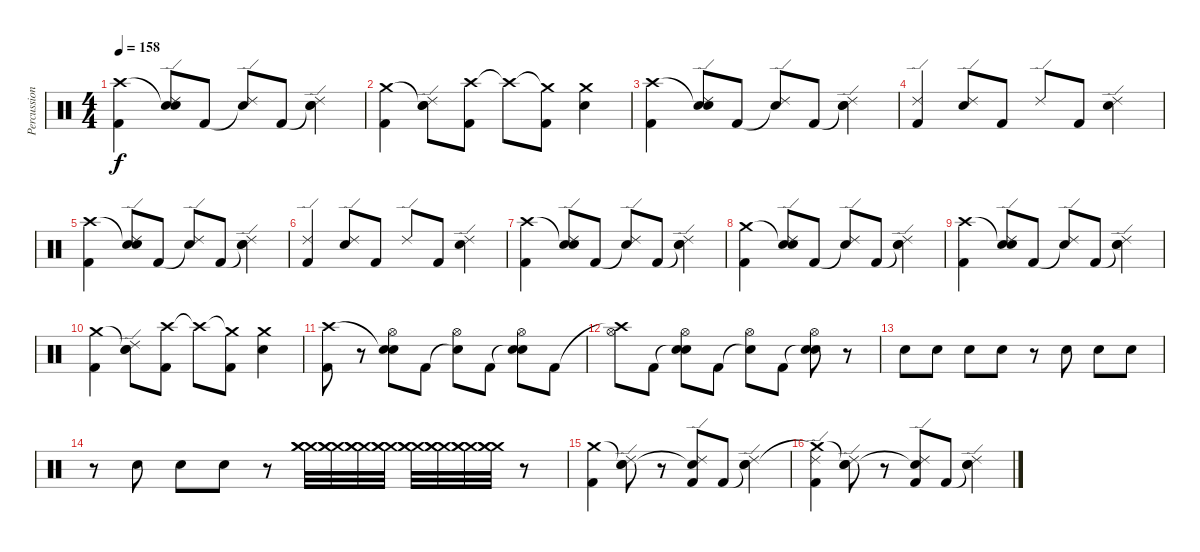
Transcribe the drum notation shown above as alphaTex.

\track ("Percussion" "Percussion") {instrument percussion}
\staff {score}
\articulation defaults
\ts (4 4)
\tempo 158
\clef neutral
\ks c
("Crash high (hit)" "Kick (hit) 2").4{dy f} ("Snare (hit)"{t} "Ride (edge) 2" "Snare (hit) 2").8 "Kick (hit) 2".8 ("Snare (hit)"{t} "Ride (edge) 2").8 "Kick (hit) 2".8 ("Snare (hit)"{t} "Ride (edge) 2" "Snare (hit) 2").4 |
("Crash medium (hit)" "Kick (hit) 2").4 ("Snare (hit)"{t} "Ride (edge) 2" "Snare (hit) 2").8 ("Crash high (hit)" "Kick (hit) 2").8 "Crash high (hit)"{t}.8 ("Crash medium (hit)"{t} "Kick (hit) 2").8 ("Crash medium (hit)" "Snare (hit) 2").4 |
("Crash high (hit)" "Kick (hit) 2").4 ("Snare (hit)"{t} "Ride (edge) 2" "Snare (hit) 2").8 "Kick (hit) 2".8 ("Snare (hit)"{t} "Ride (edge) 2").8 "Kick (hit) 2".8 ("Snare (hit)"{t} "Ride (edge) 2" "Snare (hit) 2").4 |
("Ride (edge) 2" "Kick (hit) 2").4 ("Ride (edge) 2" "Snare (hit) 2").8 "Kick (hit) 2".8 "Ride (edge) 2".8 "Kick (hit) 2".8 ("Ride (edge) 2" "Snare (hit) 2").4 |
("Crash high (hit)" "Kick (hit) 2").4 ("Snare (hit)"{t} "Ride (edge) 2" "Snare (hit) 2").8 "Kick (hit) 2".8 ("Snare (hit)"{t} "Ride (edge) 2").8 "Kick (hit) 2".8 ("Snare (hit)"{t} "Ride (edge) 2" "Snare (hit) 2").4 |
("Ride (edge) 2" "Kick (hit) 2").4 ("Ride (edge) 2" "Snare (hit) 2").8 "Kick (hit) 2".8 "Ride (edge) 2".8 "Kick (hit) 2".8 ("Ride (edge) 2" "Snare (hit) 2").4 |
("Crash high (hit)" "Kick (hit) 2").4 ("Snare (hit)"{t} "Ride (edge) 2" "Snare (hit) 2").8 "Kick (hit) 2".8 ("Snare (hit)"{t} "Ride (edge) 2").8 "Kick (hit) 2".8 ("Snare (hit)"{t} "Ride (edge) 2" "Snare (hit) 2").4 |
("Crash medium (hit)" "Kick (hit) 2").4 ("Snare (hit)"{t} "Ride (edge) 2" "Snare (hit) 2").8 "Kick (hit) 2".8 ("Snare (hit)"{t} "Ride (edge) 2").8 "Kick (hit) 2".8 ("Snare (hit)"{t} "Ride (edge) 2" "Snare (hit) 2").4 |
("Crash high (hit)" "Kick (hit) 2").4 ("Snare (hit)"{t} "Ride (edge) 2" "Snare (hit) 2").8 "Kick (hit) 2".8 ("Snare (hit)"{t} "Ride (edge) 2").8 "Kick (hit) 2".8 ("Snare (hit)"{t} "Ride (edge) 2" "Snare (hit) 2").4 |
("Crash medium (hit)" "Kick (hit) 2").4 ("Snare (hit)"{t} "Ride (edge) 2" "Snare (hit) 2").8 ("Crash high (hit)" "Kick (hit) 2").8 "Crash high (hit)"{t}.8 ("Crash medium (hit)"{t} "Kick (hit) 2").8 ("Crash medium (hit)" "Snare (hit) 2").4 |
("Crash high (hit)" "Kick (hit) 2").8 r.8 ("Snare (hit)"{t} "Hi-Hat (open)" "Snare (hit) 2").8 "Kick (hit) 2".8 ("Snare (hit)"{t} "Hi-Hat (open)").8 "Kick (hit) 2".8 ("Snare (hit)"{t} "Hi-Hat (open)" "Snare (hit) 2").8 "Kick (hit) 2".8 |
("Crash high (hit)"{t} "Hi-Hat (open)").8 "Kick (hit) 2".8 ("Snare (hit)"{t} "Hi-Hat (open)" "Snare (hit) 2").8 "Kick (hit) 2".8 ("Snare (hit)"{t} "Hi-Hat (open)").8 "Kick (hit) 2".8 ("Snare (hit)"{t} "Hi-Hat (open)" "Snare (hit) 2").8 r.8 |
"Snare (hit) 2".8 "Snare (hit) 2".8 "Snare (hit) 2".8 "Snare (hit) 2".8 r.8 "Snare (hit) 2".8 "Snare (hit) 2".8 "Snare (hit) 2".8 |
r.8 "Snare (hit) 2".8 "Snare (hit) 2".8 "Snare (hit) 2".8 r.8 ("Crash medium (hit)" "Crash medium (hit)" "Crash medium (hit)").32 ("Crash medium (hit)" "Crash medium (hit)" "Crash medium (hit)").32 ("Crash medium (hit)" "Crash medium (hit)" "Crash medium (hit)").32 ("Crash medium (hit)" "Crash medium (hit)" "Crash medium (hit)").32 ("Crash medium (hit)" "Crash medium (hit)" "Crash medium (hit)").32 ("Crash medium (hit)" "Crash medium (hit)" "Crash medium (hit)").32 ("Crash medium (hit)" "Crash medium (hit)" "Crash medium (hit)").32 ("Crash medium (hit)" "Crash medium (hit)" "Crash medium (hit)").32 r.8 |
("Crash medium (hit)" "Kick (hit) 2").4 ("Snare (hit)"{t} "Ride (edge) 2" "Snare (hit) 2").8 r.8 ("Snare (hit)"{t} "Ride (edge) 2" "Kick (hit) 2").8 "Kick (hit) 2".8 ("Snare (hit)"{t} "Ride (edge) 2" "Snare (hit) 2").4 |
("Crash medium (hit)"{t} "Ride (edge) 2" "Kick (hit) 2").4 ("Snare (hit)"{t} "Ride (edge) 2" "Snare (hit) 2").8 r.8 ("Snare (hit)"{t} "Ride (edge) 2" "Kick (hit) 2").8 "Kick (hit) 2".8 ("Snare (hit)"{t} "Ride (edge) 2" "Snare (hit) 2").4
